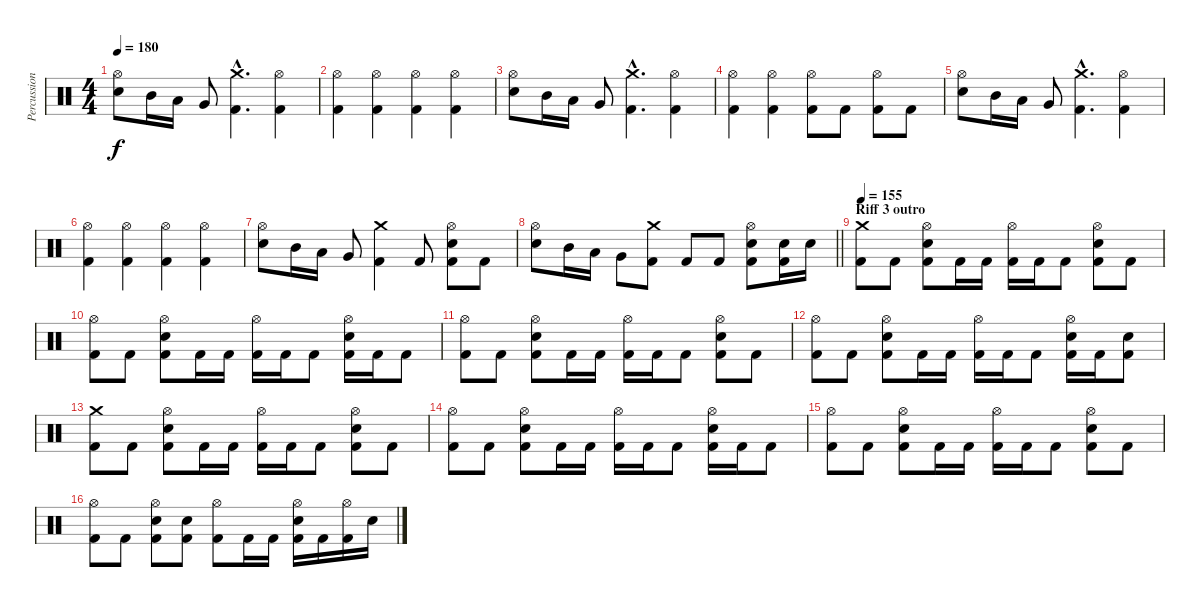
\track ("Percussion" "Percussion") {instrument percussion}
\staff {score}
\articulation defaults
\ts (4 4)
\tempo 180
\clef neutral
\ks c
("Hi-Hat (open)" "Snare (hit) 2").8{dy f} "Mid Tom (hit)".16 "Low Tom (hit)".16 "Very Low Tom (hit)".8 ("Crash medium (hit)"{hac} "Kick (hit) 2"{hac}).4{d} ("Hi-Hat (open)" "Kick (hit) 2").4 |
("Hi-Hat (open)" "Kick (hit) 2").4 ("Hi-Hat (open)" "Kick (hit) 2").4 ("Hi-Hat (open)" "Kick (hit) 2").4 ("Hi-Hat (open)" "Kick (hit) 2").4 |
("Hi-Hat (open)" "Snare (hit) 2").8 "Mid Tom (hit)".16 "Low Tom (hit)".16 "Very Low Tom (hit)".8 ("Crash medium (hit)"{hac} "Kick (hit) 2"{hac}).4{d} ("Hi-Hat (open)" "Kick (hit) 2").4 |
("Hi-Hat (open)" "Kick (hit) 2").4 ("Hi-Hat (open)" "Kick (hit) 2").4 ("Hi-Hat (open)" "Kick (hit) 2").8 "Kick (hit) 2".8 ("Hi-Hat (open)" "Kick (hit) 2").8 "Kick (hit) 2".8 |
("Hi-Hat (open)" "Snare (hit) 2").8 "Mid Tom (hit)".16 "Low Tom (hit)".16 "Very Low Tom (hit)".8 ("Crash medium (hit)"{hac} "Kick (hit) 2"{hac}).4{d} ("Hi-Hat (open)" "Kick (hit) 2").4 |
("Hi-Hat (open)" "Kick (hit) 2").4 ("Hi-Hat (open)" "Kick (hit) 2").4 ("Hi-Hat (open)" "Kick (hit) 2").4 ("Hi-Hat (open)" "Kick (hit) 2").4 |
("Hi-Hat (open)" "Snare (hit) 2").8 "Mid Tom (hit)".16 "Low Tom (hit)".16 "Very Low Tom (hit)".8 ("Crash medium (hit)" "Kick (hit) 2").4 "Kick (hit) 2".8 ("Kick (hit) 2" "Hi-Hat (open)" "Snare (hit) 2").8 "Kick (hit) 2".8 |
\barLineRight lightlight
("Hi-Hat (open)" "Snare (hit) 2").8 "Mid Tom (hit)".16 "Low Tom (hit)".16 "Very Low Tom (hit)".8 ("Crash medium (hit)" "Kick (hit) 2").8 "Kick (hit) 2".8 "Kick (hit) 2".8 ("Kick (hit) 2" "Hi-Hat (open)" "Snare (hit) 2").8 ("Kick (hit) 2" "Snare (hit) 2").16 "Snare (hit) 2".16 |
\section ("" "Riff 3 outro")
\tempo 155
("Crash medium (hit)" "Kick (hit) 2").8 "Kick (hit) 2".8 ("Kick (hit) 2" "Hi-Hat (open)" "Snare (hit) 2").8 "Kick (hit) 2".16 "Kick (hit) 2".16 ("Hi-Hat (open)" "Kick (hit) 2").16 "Kick (hit) 2".16 "Kick (hit) 2".8 ("Kick (hit) 2" "Hi-Hat (open)" "Snare (hit) 2").8 "Kick (hit) 2".8 |
("Hi-Hat (open)" "Kick (hit) 2").8 "Kick (hit) 2".8 ("Kick (hit) 2" "Hi-Hat (open)" "Snare (hit) 2").8 "Kick (hit) 2".16 "Kick (hit) 2".16 ("Hi-Hat (open)" "Kick (hit) 2").16 "Kick (hit) 2".16 "Kick (hit) 2".8 ("Kick (hit) 2" "Hi-Hat (open)" "Snare (hit) 2").16 "Kick (hit) 2".16 "Kick (hit) 2".8 |
("Hi-Hat (open)" "Kick (hit) 2").8 "Kick (hit) 2".8 ("Kick (hit) 2" "Hi-Hat (open)" "Snare (hit) 2").8 "Kick (hit) 2".16 "Kick (hit) 2".16 ("Hi-Hat (open)" "Kick (hit) 2").16 "Kick (hit) 2".16 "Kick (hit) 2".8 ("Kick (hit) 2" "Hi-Hat (open)" "Snare (hit) 2").8 "Kick (hit) 2".8 |
("Hi-Hat (open)" "Kick (hit) 2").8 "Kick (hit) 2".8 ("Kick (hit) 2" "Hi-Hat (open)" "Snare (hit) 2").8 "Kick (hit) 2".16 "Kick (hit) 2".16 ("Hi-Hat (open)" "Kick (hit) 2").16 "Kick (hit) 2".16 "Kick (hit) 2".8 ("Kick (hit) 2" "Hi-Hat (open)" "Snare (hit) 2").16 "Kick (hit) 2".16 ("Kick (hit) 2" "Snare (hit) 2").8 |
("Crash medium (hit)" "Kick (hit) 2").8 "Kick (hit) 2".8 ("Kick (hit) 2" "Hi-Hat (open)" "Snare (hit) 2").8 "Kick (hit) 2".16 "Kick (hit) 2".16 ("Hi-Hat (open)" "Kick (hit) 2").16 "Kick (hit) 2".16 "Kick (hit) 2".8 ("Kick (hit) 2" "Hi-Hat (open)" "Snare (hit) 2").8 "Kick (hit) 2".8 |
("Hi-Hat (open)" "Kick (hit) 2").8 "Kick (hit) 2".8 ("Kick (hit) 2" "Hi-Hat (open)" "Snare (hit) 2").8 "Kick (hit) 2".16 "Kick (hit) 2".16 ("Hi-Hat (open)" "Kick (hit) 2").16 "Kick (hit) 2".16 "Kick (hit) 2".8 ("Kick (hit) 2" "Hi-Hat (open)" "Snare (hit) 2").16 "Kick (hit) 2".16 "Kick (hit) 2".8 |
("Hi-Hat (open)" "Kick (hit) 2").8 "Kick (hit) 2".8 ("Kick (hit) 2" "Hi-Hat (open)" "Snare (hit) 2").8 "Kick (hit) 2".16 "Kick (hit) 2".16 ("Hi-Hat (open)" "Kick (hit) 2").16 "Kick (hit) 2".16 "Kick (hit) 2".8 ("Kick (hit) 2" "Hi-Hat (open)" "Snare (hit) 2").8 "Kick (hit) 2".8 |
("Hi-Hat (open)" "Kick (hit) 2").8 "Kick (hit) 2".8 ("Kick (hit) 2" "Hi-Hat (open)" "Snare (hit) 2").8 ("Kick (hit) 2" "Snare (hit) 2").8 ("Hi-Hat (open)" "Kick (hit) 2").8 "Kick (hit) 2".16 "Kick (hit) 2".16 ("Kick (hit) 2" "Hi-Hat (open)" "Snare (hit) 2").16 "Kick (hit) 2".16 ("Hi-Hat (open)" "Kick (hit) 2").16 "Snare (hit) 2".16
